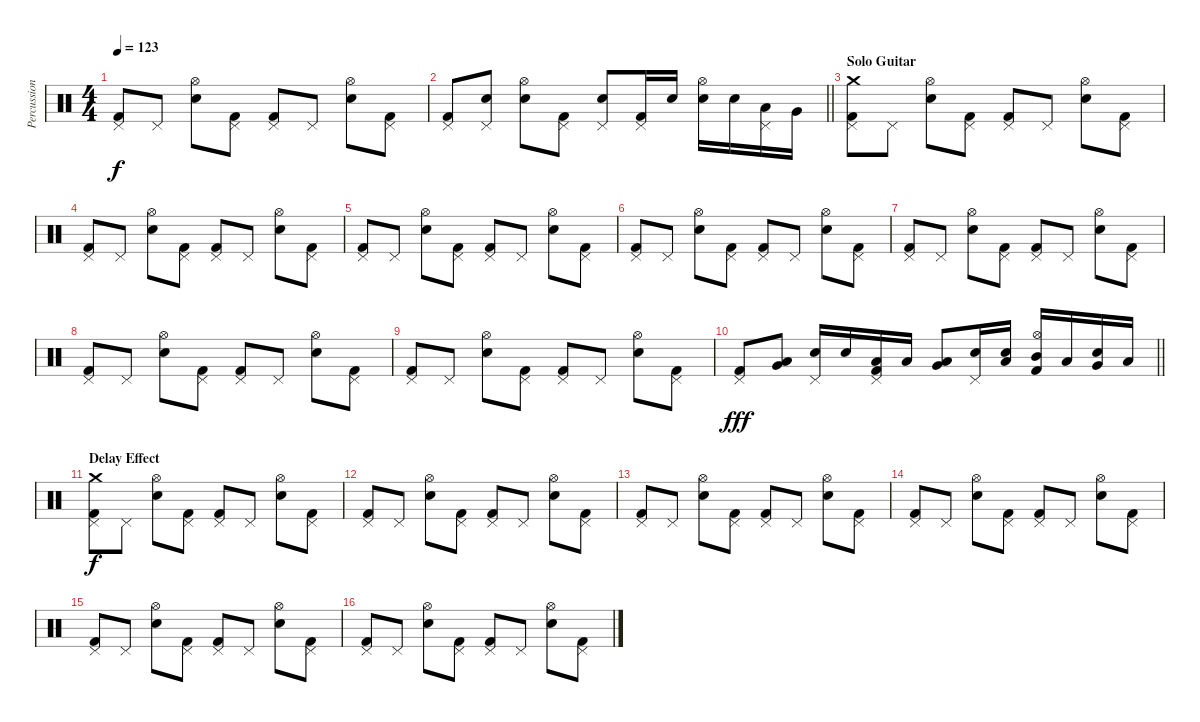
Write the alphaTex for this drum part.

\track ("Percussion 1" "Percussion") {instrument percussion}
\staff {score}
\articulation defaults
\ts (4 4)
\tempo 123
\clef neutral
\ks c
("Pedal Hi-Hat (hit)" "Kick (hit) 2").8{dy f} "Pedal Hi-Hat (hit)".8 ("Hi-Hat (open)" "Electric Snare (hit)").8 ("Pedal Hi-Hat (hit)" "Kick (hit) 2").8 ("Pedal Hi-Hat (hit)" "Kick (hit) 2").8 "Pedal Hi-Hat (hit)".8 ("Hi-Hat (open)" "Electric Snare (hit)").8 ("Pedal Hi-Hat (hit)" "Kick (hit) 2").8 |
\barLineRight lightlight
("Pedal Hi-Hat (hit)" "Kick (hit) 2").8 ("Pedal Hi-Hat (hit)" "Electric Snare (hit)").8 ("Electric Snare (hit)" "Hi-Hat (open)").8 ("Pedal Hi-Hat (hit)" "Kick (hit) 2").8 ("Pedal Hi-Hat (hit)" "Electric Snare (hit)").8 ("Pedal Hi-Hat (hit)" "Kick (hit) 2").16 "Electric Snare (hit)".16 ("Hi-Hat (open)" "Electric Snare (hit)").16 "Electric Snare (hit)".16 ("Pedal Hi-Hat (hit)" "Low Tom (hit)").16 "Very Low Tom (hit)".16 |
\section ("" "Solo Guitar")
("Pedal Hi-Hat (hit)" "Crash medium (hit)" "Kick (hit) 2").8 "Pedal Hi-Hat (hit)".8 ("Hi-Hat (open)" "Electric Snare (hit)").8 ("Pedal Hi-Hat (hit)" "Kick (hit) 2").8 ("Pedal Hi-Hat (hit)" "Kick (hit) 2").8 "Pedal Hi-Hat (hit)".8 ("Hi-Hat (open)" "Electric Snare (hit)").8 ("Pedal Hi-Hat (hit)" "Kick (hit) 2").8 |
("Pedal Hi-Hat (hit)" "Kick (hit) 2").8 "Pedal Hi-Hat (hit)".8 ("Hi-Hat (open)" "Electric Snare (hit)").8 ("Pedal Hi-Hat (hit)" "Kick (hit) 2").8 ("Pedal Hi-Hat (hit)" "Kick (hit) 2").8 "Pedal Hi-Hat (hit)".8 ("Hi-Hat (open)" "Electric Snare (hit)").8 ("Pedal Hi-Hat (hit)" "Kick (hit) 2").8 |
("Pedal Hi-Hat (hit)" "Kick (hit) 2").8 "Pedal Hi-Hat (hit)".8 ("Hi-Hat (open)" "Electric Snare (hit)").8 ("Pedal Hi-Hat (hit)" "Kick (hit) 2").8 ("Pedal Hi-Hat (hit)" "Kick (hit) 2").8 "Pedal Hi-Hat (hit)".8 ("Hi-Hat (open)" "Electric Snare (hit)").8 ("Pedal Hi-Hat (hit)" "Kick (hit) 2").8 |
("Pedal Hi-Hat (hit)" "Kick (hit) 2").8 "Pedal Hi-Hat (hit)".8 ("Hi-Hat (open)" "Electric Snare (hit)").8 ("Pedal Hi-Hat (hit)" "Kick (hit) 2").8 ("Pedal Hi-Hat (hit)" "Kick (hit) 2").8 "Pedal Hi-Hat (hit)".8 ("Hi-Hat (open)" "Electric Snare (hit)").8 ("Pedal Hi-Hat (hit)" "Kick (hit) 2").8 |
("Pedal Hi-Hat (hit)" "Kick (hit) 2").8 "Pedal Hi-Hat (hit)".8 ("Hi-Hat (open)" "Electric Snare (hit)").8 ("Pedal Hi-Hat (hit)" "Kick (hit) 2").8 ("Pedal Hi-Hat (hit)" "Kick (hit) 2").8 "Pedal Hi-Hat (hit)".8 ("Hi-Hat (open)" "Electric Snare (hit)").8 ("Pedal Hi-Hat (hit)" "Kick (hit) 2").8 |
("Pedal Hi-Hat (hit)" "Kick (hit) 2").8 "Pedal Hi-Hat (hit)".8 ("Hi-Hat (open)" "Electric Snare (hit)").8 ("Pedal Hi-Hat (hit)" "Kick (hit) 2").8 ("Pedal Hi-Hat (hit)" "Kick (hit) 2").8 "Pedal Hi-Hat (hit)".8 ("Hi-Hat (open)" "Electric Snare (hit)").8 ("Pedal Hi-Hat (hit)" "Kick (hit) 2").8 |
("Pedal Hi-Hat (hit)" "Kick (hit) 2").8 "Pedal Hi-Hat (hit)".8 ("Hi-Hat (open)" "Electric Snare (hit)").8 ("Pedal Hi-Hat (hit)" "Kick (hit) 2").8 ("Pedal Hi-Hat (hit)" "Kick (hit) 2").8 "Pedal Hi-Hat (hit)".8 ("Hi-Hat (open)" "Electric Snare (hit)").8 ("Pedal Hi-Hat (hit)" "Kick (hit) 2").8 |
\barLineRight lightlight
("Pedal Hi-Hat (hit)" "Kick (hit) 2").8{dy fff} ("Very Low Tom (hit)" "Low Tom (hit)").8 ("Pedal Hi-Hat (hit)" "Electric Snare (hit)").16 "Electric Snare (hit)".16 ("Pedal Hi-Hat (hit)" "Low Tom (hit)" "Kick (hit) 2").16 "Low Tom (hit)".16 ("Very Low Tom (hit)" "Low Tom (hit)").8 ("Pedal Hi-Hat (hit)" "Electric Snare (hit)").16 ("Electric Snare (hit)" "Low Tom (hit)").16 ("Hi-Hat (open)" "Mid Tom (hit)" "Kick (hit) 2").16 "Low Tom (hit)".16 ("Electric Snare (hit)" "Very Low Tom (hit)").16 "Low Floor Tom (hit)".16 |
\section ("" "Delay Effect")
("Pedal Hi-Hat (hit)" "Crash medium (hit)" "Kick (hit) 2").8{dy f} "Pedal Hi-Hat (hit)".8 ("Hi-Hat (open)" "Electric Snare (hit)").8 ("Pedal Hi-Hat (hit)" "Kick (hit) 2").8 ("Pedal Hi-Hat (hit)" "Kick (hit) 2").8 "Pedal Hi-Hat (hit)".8 ("Hi-Hat (open)" "Electric Snare (hit)").8 ("Pedal Hi-Hat (hit)" "Kick (hit) 2").8 |
("Pedal Hi-Hat (hit)" "Kick (hit) 2").8 "Pedal Hi-Hat (hit)".8 ("Hi-Hat (open)" "Electric Snare (hit)").8 ("Pedal Hi-Hat (hit)" "Kick (hit) 2").8 ("Pedal Hi-Hat (hit)" "Kick (hit) 2").8 "Pedal Hi-Hat (hit)".8 ("Hi-Hat (open)" "Electric Snare (hit)").8 ("Pedal Hi-Hat (hit)" "Kick (hit) 2").8 |
("Pedal Hi-Hat (hit)" "Kick (hit) 2").8 "Pedal Hi-Hat (hit)".8 ("Hi-Hat (open)" "Electric Snare (hit)").8 ("Pedal Hi-Hat (hit)" "Kick (hit) 2").8 ("Pedal Hi-Hat (hit)" "Kick (hit) 2").8 "Pedal Hi-Hat (hit)".8 ("Hi-Hat (open)" "Electric Snare (hit)").8 ("Pedal Hi-Hat (hit)" "Kick (hit) 2").8 |
("Pedal Hi-Hat (hit)" "Kick (hit) 2").8 "Pedal Hi-Hat (hit)".8 ("Hi-Hat (open)" "Electric Snare (hit)").8 ("Pedal Hi-Hat (hit)" "Kick (hit) 2").8 ("Pedal Hi-Hat (hit)" "Kick (hit) 2").8 "Pedal Hi-Hat (hit)".8 ("Hi-Hat (open)" "Electric Snare (hit)").8 ("Pedal Hi-Hat (hit)" "Kick (hit) 2").8 |
("Pedal Hi-Hat (hit)" "Kick (hit) 2").8 "Pedal Hi-Hat (hit)".8 ("Hi-Hat (open)" "Electric Snare (hit)").8 ("Pedal Hi-Hat (hit)" "Kick (hit) 2").8 ("Pedal Hi-Hat (hit)" "Kick (hit) 2").8 "Pedal Hi-Hat (hit)".8 ("Hi-Hat (open)" "Electric Snare (hit)").8 ("Pedal Hi-Hat (hit)" "Kick (hit) 2").8 |
("Pedal Hi-Hat (hit)" "Kick (hit) 2").8 "Pedal Hi-Hat (hit)".8 ("Hi-Hat (open)" "Electric Snare (hit)").8 ("Pedal Hi-Hat (hit)" "Kick (hit) 2").8 ("Pedal Hi-Hat (hit)" "Kick (hit) 2").8 "Pedal Hi-Hat (hit)".8 ("Hi-Hat (open)" "Electric Snare (hit)").8 ("Pedal Hi-Hat (hit)" "Kick (hit) 2").8
